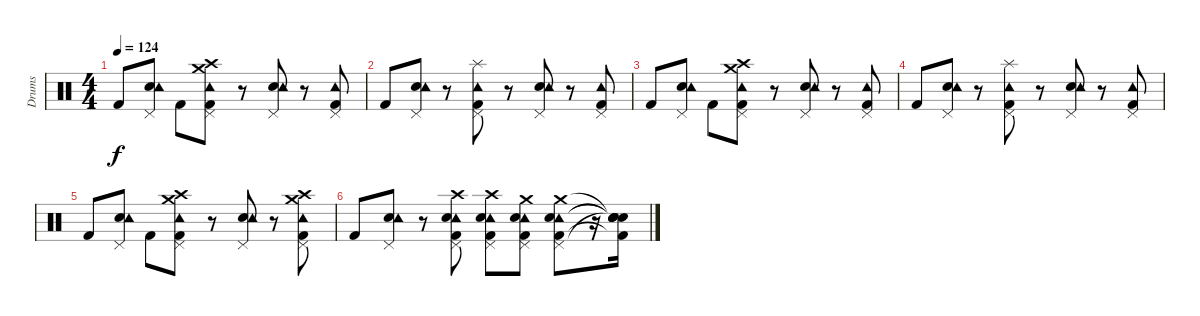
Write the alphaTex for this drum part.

\track ("Drums" "Drums") {instrument percussion}
\staff {score}
\articulation defaults
\ts (4 4)
\tempo 124
\clef neutral
\ks c "Kick (hit) 2".8{dy f}
("Snare (hit) 2" "Tambourine (hit)" "Pedal Hi-Hat (hit)").8 "Kick (hit) 2".8 ("Kick (hit) 2" "Tambourine (hit)" "Pedal Hi-Hat (hit)" "Crash high (hit)" "Crash medium (hit)").8 r.8 ("Snare (hit) 2" "Tambourine (hit)" "Pedal Hi-Hat (hit)").8 r.8 ("Kick (hit) 2" "Tambourine (hit)" "Pedal Hi-Hat (hit)").8 |
"Kick (hit) 2".8 ("Snare (hit) 2" "Tambourine (hit)" "Pedal Hi-Hat (hit)").8 r.8 ("Kick (hit) 2" "Tambourine (hit)" "Pedal Hi-Hat (hit)" "Splash (hit)").8 r.8 ("Snare (hit) 2" "Tambourine (hit)" "Pedal Hi-Hat (hit)").8 r.8 ("Kick (hit) 2" "Tambourine (hit)" "Pedal Hi-Hat (hit)").8 |
"Kick (hit) 2".8 ("Snare (hit) 2" "Tambourine (hit)" "Pedal Hi-Hat (hit)").8 "Kick (hit) 2".8 ("Kick (hit) 2" "Tambourine (hit)" "Pedal Hi-Hat (hit)" "Crash high (hit)" "Crash medium (hit)").8 r.8 ("Snare (hit) 2" "Tambourine (hit)" "Pedal Hi-Hat (hit)").8 r.8 ("Kick (hit) 2" "Tambourine (hit)" "Pedal Hi-Hat (hit)").8 |
"Kick (hit) 2".8 ("Snare (hit) 2" "Tambourine (hit)" "Pedal Hi-Hat (hit)").8 r.8 ("Kick (hit) 2" "Tambourine (hit)" "Pedal Hi-Hat (hit)" "Splash (hit)").8 r.8 ("Snare (hit) 2" "Tambourine (hit)" "Pedal Hi-Hat (hit)").8 r.8 ("Kick (hit) 2" "Tambourine (hit)" "Pedal Hi-Hat (hit)").8 |
"Kick (hit) 2".8 ("Snare (hit) 2" "Tambourine (hit)" "Pedal Hi-Hat (hit)").8 "Kick (hit) 2".8 ("Kick (hit) 2" "Tambourine (hit)" "Pedal Hi-Hat (hit)" "Crash high (hit)" "Crash medium (hit)").8 r.8 ("Snare (hit) 2" "Tambourine (hit)" "Pedal Hi-Hat (hit)").8 r.8 ("Kick (hit) 2" "Tambourine (hit)" "Pedal Hi-Hat (hit)" "Crash high (hit)" "Crash medium (hit)").8 |
"Kick (hit) 2".8 ("Snare (hit) 2" "Tambourine (hit)" "Pedal Hi-Hat (hit)").8 r.8 ("Kick (hit) 2" "Tambourine (hit)" "Pedal Hi-Hat (hit)" "Snare (hit) 2" "Crash high (hit)").8 ("Kick (hit) 2" "Tambourine (hit)" "Pedal Hi-Hat (hit)" "Snare (hit) 2" "Crash high (hit)").8 ("Kick (hit) 2" "Tambourine (hit)" "Pedal Hi-Hat (hit)" "Snare (hit) 2" "Crash medium (hit)").8 ("Kick (hit) 2" "Tambourine (hit)" "Pedal Hi-Hat (hit)" "Snare (hit) 2" "Crash medium (hit)").8 r.16 ("Kick (hit) 2"{t} "Snare (hit)"{t} "Snare (hit)"{t} "Snare (hit)"{t} "Snare (hit)"{t}).16
